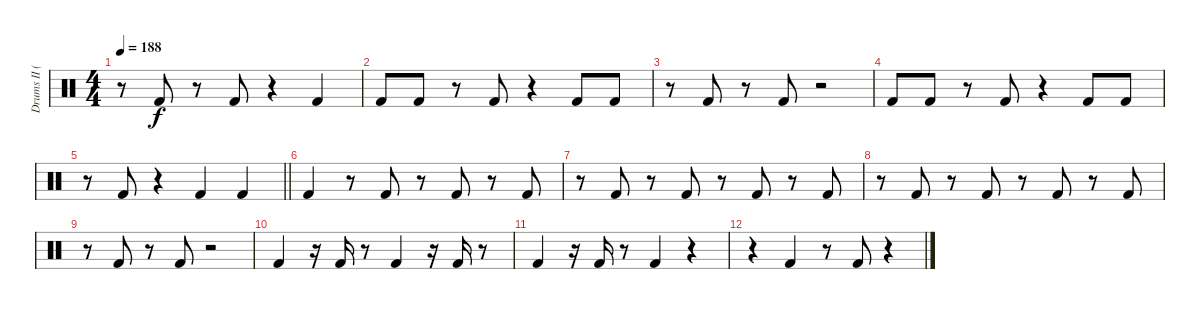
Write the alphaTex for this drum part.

\track ("Drums II (Ruka)" "Drums II (") {instrument percussion}
\staff {score}
\articulation defaults
\ts (4 4)
\tempo 188
\clef neutral
\ks c
r.8{dy f} "Kick (hit) 2".8 r.8 "Kick (hit) 2".8 r.4 "Kick (hit) 2".4 |
"Kick (hit) 2".8 "Kick (hit) 2".8 r.8 "Kick (hit) 2".8 r.4 "Kick (hit) 2".8 "Kick (hit) 2".8 |
r.8 "Kick (hit) 2".8 r.8 "Kick (hit) 2".8 r.2 |
"Kick (hit) 2".8 "Kick (hit) 2".8 r.8 "Kick (hit) 2".8 r.4 "Kick (hit) 2".8 "Kick (hit) 2".8 |
\barLineRight lightlight
r.8 "Kick (hit) 2".8 r.4 "Kick (hit) 2".4 "Kick (hit) 2".4 |
"Kick (hit) 2".4 r.8 "Kick (hit) 2".8 r.8 "Kick (hit) 2".8 r.8 "Kick (hit) 2".8 |
r.8 "Kick (hit) 2".8 r.8 "Kick (hit) 2".8 r.8 "Kick (hit) 2".8 r.8 "Kick (hit) 2".8 |
r.8 "Kick (hit) 2".8 r.8 "Kick (hit) 2".8 r.8 "Kick (hit) 2".8 r.8 "Kick (hit) 2".8 |
r.8 "Kick (hit) 2".8 r.8 "Kick (hit) 2".8 r.2 |
"Kick (hit) 2".4 r.16 "Kick (hit) 2".16 r.8 "Kick (hit) 2".4 r.16 "Kick (hit) 2".16 r.8 |
"Kick (hit) 2".4 r.16 "Kick (hit) 2".16 r.8 "Kick (hit) 2".4 r.4 |
r.4 "Kick (hit) 2".4 r.8 "Kick (hit) 2".8 r.4
